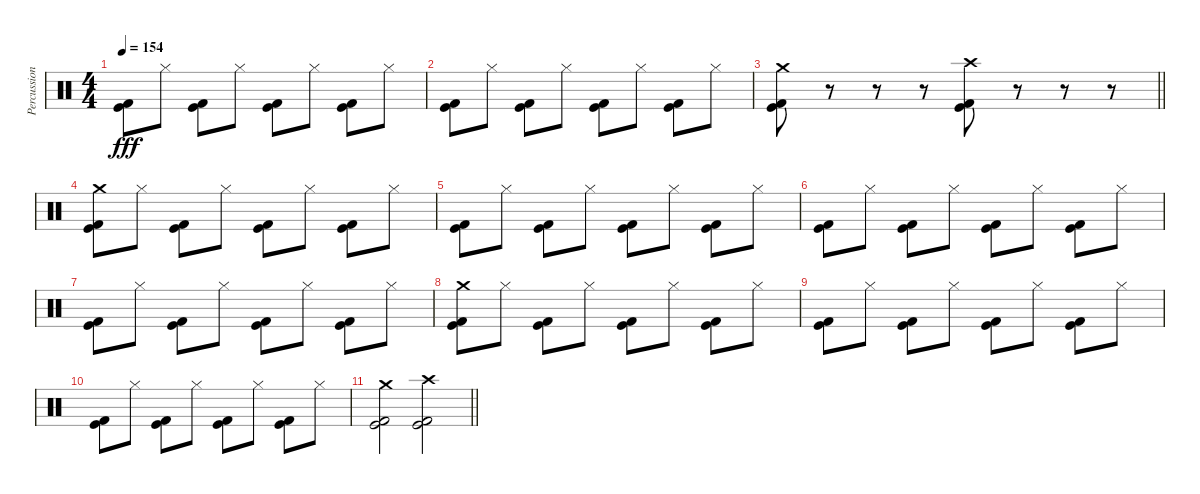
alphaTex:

\track ("Percussion" "Percussion") {instrument percussion}
\staff {score}
\articulation defaults
\ts (4 4)
\tempo 154
\clef neutral
\ks c
("Kick (hit)" "Kick (hit) 2").8{dy fff} "Hi-Hat (closed)".8 ("Kick (hit)" "Kick (hit) 2").8 "Hi-Hat (closed)".8 ("Kick (hit)" "Kick (hit) 2").8 "Hi-Hat (closed)".8 ("Kick (hit)" "Kick (hit) 2").8 "Hi-Hat (closed)".8 |
("Kick (hit)" "Kick (hit) 2").8 "Hi-Hat (closed)".8 ("Kick (hit)" "Kick (hit) 2").8 "Hi-Hat (closed)".8 ("Kick (hit)" "Kick (hit) 2").8 "Hi-Hat (closed)".8 ("Kick (hit)" "Kick (hit) 2").8 "Hi-Hat (closed)".8 |
\barLineRight lightlight
("Crash medium (hit)" "Kick (hit)" "Kick (hit) 2").8 r.8 r.8 r.8 ("Crash high (hit)" "Kick (hit)" "Kick (hit) 2").8 r.8 r.8 r.8 |
("Crash medium (hit)" "Kick (hit)" "Kick (hit) 2").8 "Hi-Hat (closed)".8 ("Kick (hit)" "Kick (hit) 2").8 "Hi-Hat (closed)".8 ("Kick (hit)" "Kick (hit) 2").8 "Hi-Hat (closed)".8 ("Kick (hit)" "Kick (hit) 2").8 "Hi-Hat (closed)".8 |
("Kick (hit)" "Kick (hit) 2").8 "Hi-Hat (closed)".8 ("Kick (hit)" "Kick (hit) 2").8 "Hi-Hat (closed)".8 ("Kick (hit)" "Kick (hit) 2").8 "Hi-Hat (closed)".8 ("Kick (hit)" "Kick (hit) 2").8 "Hi-Hat (closed)".8 |
("Kick (hit)" "Kick (hit) 2").8 "Hi-Hat (closed)".8 ("Kick (hit)" "Kick (hit) 2").8 "Hi-Hat (closed)".8 ("Kick (hit)" "Kick (hit) 2").8 "Hi-Hat (closed)".8 ("Kick (hit)" "Kick (hit) 2").8 "Hi-Hat (closed)".8 |
("Kick (hit)" "Kick (hit) 2").8 "Hi-Hat (closed)".8 ("Kick (hit)" "Kick (hit) 2").8 "Hi-Hat (closed)".8 ("Kick (hit)" "Kick (hit) 2").8 "Hi-Hat (closed)".8 ("Kick (hit)" "Kick (hit) 2").8 "Hi-Hat (closed)".8 |
("Crash medium (hit)" "Kick (hit)" "Kick (hit) 2").8 "Hi-Hat (closed)".8 ("Kick (hit)" "Kick (hit) 2").8 "Hi-Hat (closed)".8 ("Kick (hit)" "Kick (hit) 2").8 "Hi-Hat (closed)".8 ("Kick (hit)" "Kick (hit) 2").8 "Hi-Hat (closed)".8 |
("Kick (hit)" "Kick (hit) 2").8 "Hi-Hat (closed)".8 ("Kick (hit)" "Kick (hit) 2").8 "Hi-Hat (closed)".8 ("Kick (hit)" "Kick (hit) 2").8 "Hi-Hat (closed)".8 ("Kick (hit)" "Kick (hit) 2").8 "Hi-Hat (closed)".8 |
("Kick (hit)" "Kick (hit) 2").8 "Hi-Hat (closed)".8 ("Kick (hit)" "Kick (hit) 2").8 "Hi-Hat (closed)".8 ("Kick (hit)" "Kick (hit) 2").8 "Hi-Hat (closed)".8 ("Kick (hit)" "Kick (hit) 2").8 "Hi-Hat (closed)".8 |
\barLineRight lightlight
("Crash medium (hit)" "Kick (hit)" "Kick (hit) 2").2 ("Crash high (hit)" "Kick (hit)" "Kick (hit) 2").2
